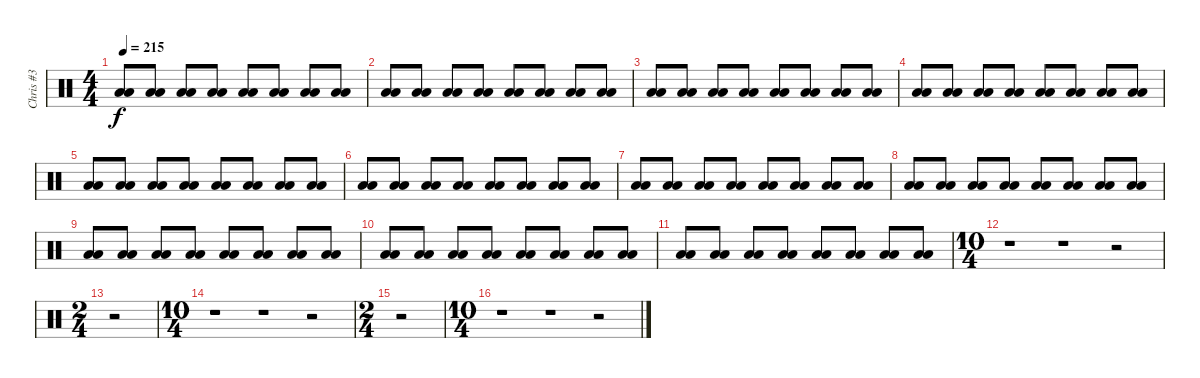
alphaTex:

\track ("Chris #3" "Chris #3") {instrument percussion}
\staff {score}
\articulation defaults
\ts (4 4)
\tempo 215
\clef neutral
\ks c
("Low Floor Tom (hit)" "Low Floor Tom (hit)").8{dy f} ("Low Floor Tom (hit)" "Low Floor Tom (hit)").8 ("Low Floor Tom (hit)" "Low Floor Tom (hit)").8 ("Low Floor Tom (hit)" "Low Floor Tom (hit)").8 ("Low Floor Tom (hit)" "Low Floor Tom (hit)").8 ("Low Floor Tom (hit)" "Low Floor Tom (hit)").8 ("Low Floor Tom (hit)" "Low Floor Tom (hit)").8 ("Low Floor Tom (hit)" "Low Floor Tom (hit)").8 |
("Low Floor Tom (hit)" "Low Floor Tom (hit)").8 ("Low Floor Tom (hit)" "Low Floor Tom (hit)").8 ("Low Floor Tom (hit)" "Low Floor Tom (hit)").8 ("Low Floor Tom (hit)" "Low Floor Tom (hit)").8 ("Low Floor Tom (hit)" "Low Floor Tom (hit)").8 ("Low Floor Tom (hit)" "Low Floor Tom (hit)").8 ("Low Floor Tom (hit)" "Low Floor Tom (hit)").8 ("Low Floor Tom (hit)" "Low Floor Tom (hit)").8 |
("Low Floor Tom (hit)" "Low Floor Tom (hit)").8 ("Low Floor Tom (hit)" "Low Floor Tom (hit)").8 ("Low Floor Tom (hit)" "Low Floor Tom (hit)").8 ("Low Floor Tom (hit)" "Low Floor Tom (hit)").8 ("Low Floor Tom (hit)" "Low Floor Tom (hit)").8 ("Low Floor Tom (hit)" "Low Floor Tom (hit)").8 ("Low Floor Tom (hit)" "Low Floor Tom (hit)").8 ("Low Floor Tom (hit)" "Low Floor Tom (hit)").8 |
("Low Floor Tom (hit)" "Low Floor Tom (hit)").8 ("Low Floor Tom (hit)" "Low Floor Tom (hit)").8 ("Low Floor Tom (hit)" "Low Floor Tom (hit)").8 ("Low Floor Tom (hit)" "Low Floor Tom (hit)").8 ("Low Floor Tom (hit)" "Low Floor Tom (hit)").8 ("Low Floor Tom (hit)" "Low Floor Tom (hit)").8 ("Low Floor Tom (hit)" "Low Floor Tom (hit)").8 ("Low Floor Tom (hit)" "Low Floor Tom (hit)").8 |
("Low Floor Tom (hit)" "Low Floor Tom (hit)").8 ("Low Floor Tom (hit)" "Low Floor Tom (hit)").8 ("Low Floor Tom (hit)" "Low Floor Tom (hit)").8 ("Low Floor Tom (hit)" "Low Floor Tom (hit)").8 ("Low Floor Tom (hit)" "Low Floor Tom (hit)").8 ("Low Floor Tom (hit)" "Low Floor Tom (hit)").8 ("Low Floor Tom (hit)" "Low Floor Tom (hit)").8 ("Low Floor Tom (hit)" "Low Floor Tom (hit)").8 |
("Low Floor Tom (hit)" "Low Floor Tom (hit)").8 ("Low Floor Tom (hit)" "Low Floor Tom (hit)").8 ("Low Floor Tom (hit)" "Low Floor Tom (hit)").8 ("Low Floor Tom (hit)" "Low Floor Tom (hit)").8 ("Low Floor Tom (hit)" "Low Floor Tom (hit)").8 ("Low Floor Tom (hit)" "Low Floor Tom (hit)").8 ("Low Floor Tom (hit)" "Low Floor Tom (hit)").8 ("Low Floor Tom (hit)" "Low Floor Tom (hit)").8 |
("Low Floor Tom (hit)" "Low Floor Tom (hit)").8 ("Low Floor Tom (hit)" "Low Floor Tom (hit)").8 ("Low Floor Tom (hit)" "Low Floor Tom (hit)").8 ("Low Floor Tom (hit)" "Low Floor Tom (hit)").8 ("Low Floor Tom (hit)" "Low Floor Tom (hit)").8 ("Low Floor Tom (hit)" "Low Floor Tom (hit)").8 ("Low Floor Tom (hit)" "Low Floor Tom (hit)").8 ("Low Floor Tom (hit)" "Low Floor Tom (hit)").8 |
("Low Floor Tom (hit)" "Low Floor Tom (hit)").8 ("Low Floor Tom (hit)" "Low Floor Tom (hit)").8 ("Low Floor Tom (hit)" "Low Floor Tom (hit)").8 ("Low Floor Tom (hit)" "Low Floor Tom (hit)").8 ("Low Floor Tom (hit)" "Low Floor Tom (hit)").8 ("Low Floor Tom (hit)" "Low Floor Tom (hit)").8 ("Low Floor Tom (hit)" "Low Floor Tom (hit)").8 ("Low Floor Tom (hit)" "Low Floor Tom (hit)").8 |
("Low Floor Tom (hit)" "Low Floor Tom (hit)").8 ("Low Floor Tom (hit)" "Low Floor Tom (hit)").8 ("Low Floor Tom (hit)" "Low Floor Tom (hit)").8 ("Low Floor Tom (hit)" "Low Floor Tom (hit)").8 ("Low Floor Tom (hit)" "Low Floor Tom (hit)").8 ("Low Floor Tom (hit)" "Low Floor Tom (hit)").8 ("Low Floor Tom (hit)" "Low Floor Tom (hit)").8 ("Low Floor Tom (hit)" "Low Floor Tom (hit)").8 |
("Low Floor Tom (hit)" "Low Floor Tom (hit)").8 ("Low Floor Tom (hit)" "Low Floor Tom (hit)").8 ("Low Floor Tom (hit)" "Low Floor Tom (hit)").8 ("Low Floor Tom (hit)" "Low Floor Tom (hit)").8 ("Low Floor Tom (hit)" "Low Floor Tom (hit)").8 ("Low Floor Tom (hit)" "Low Floor Tom (hit)").8 ("Low Floor Tom (hit)" "Low Floor Tom (hit)").8 ("Low Floor Tom (hit)" "Low Floor Tom (hit)").8 |
("Low Floor Tom (hit)" "Low Floor Tom (hit)").8 ("Low Floor Tom (hit)" "Low Floor Tom (hit)").8 ("Low Floor Tom (hit)" "Low Floor Tom (hit)").8 ("Low Floor Tom (hit)" "Low Floor Tom (hit)").8 ("Low Floor Tom (hit)" "Low Floor Tom (hit)").8 ("Low Floor Tom (hit)" "Low Floor Tom (hit)").8 ("Low Floor Tom (hit)" "Low Floor Tom (hit)").8 ("Low Floor Tom (hit)" "Low Floor Tom (hit)").8 |
\ts (10 4)
r.1 r.1 r.2 |
\ts (2 4)
r.2 |
\ts (10 4)
r.1 r.1 r.2 |
\ts (2 4)
r.2 |
\ts (10 4)
r.1 r.1 r.2
